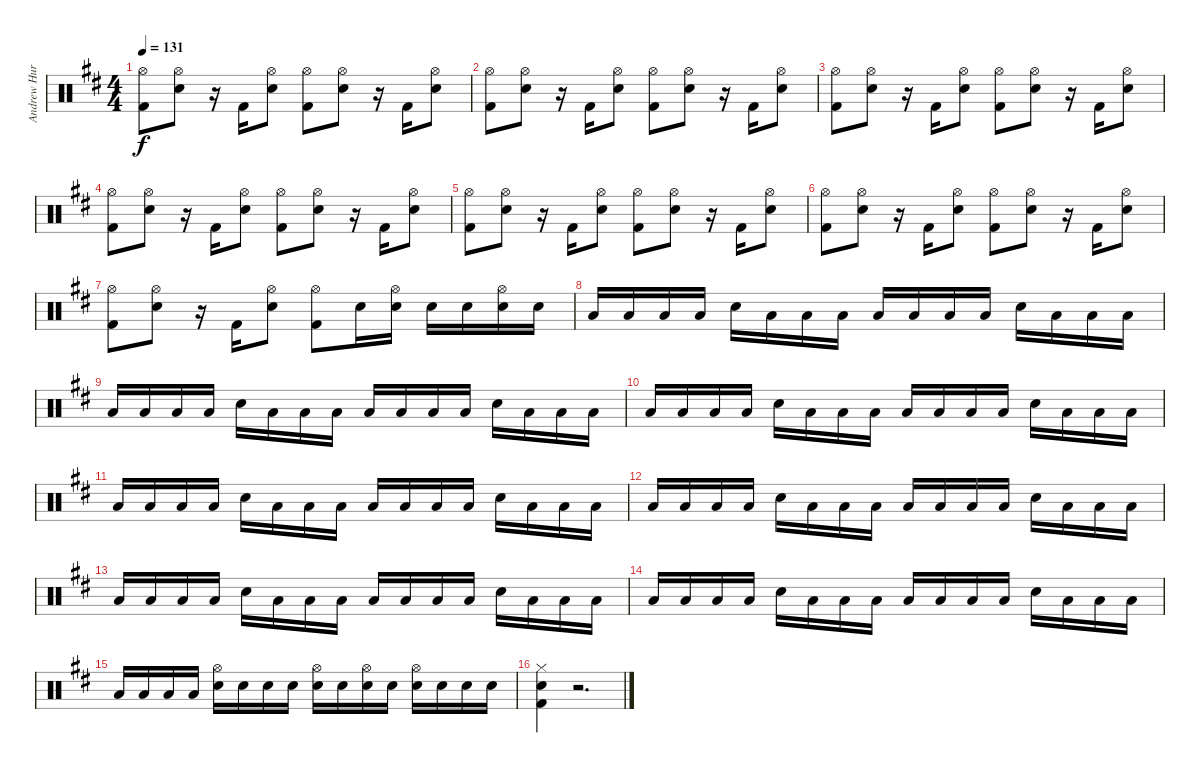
\track ("Andrew Hurley" "Andrew Hur") {instrument percussion}
\staff {score}
\articulation defaults
\ts (4 4)
\tempo 131
\clef neutral
\ks d
("Hi-Hat (open)" "Kick (hit) 2").8{dy f} ("Hi-Hat (open)" "Electric Snare (hit)").8 r.16 "Kick (hit) 2".16 ("Hi-Hat (open)" "Electric Snare (hit)").8 ("Hi-Hat (open)" "Kick (hit) 2").8 ("Hi-Hat (open)" "Electric Snare (hit)").8 r.16 "Kick (hit) 2".16 ("Hi-Hat (open)" "Electric Snare (hit)").8 |
("Hi-Hat (open)" "Kick (hit) 2").8 ("Hi-Hat (open)" "Electric Snare (hit)").8 r.16 "Kick (hit) 2".16 ("Hi-Hat (open)" "Electric Snare (hit)").8 ("Hi-Hat (open)" "Kick (hit) 2").8 ("Hi-Hat (open)" "Electric Snare (hit)").8 r.16 "Kick (hit) 2".16 ("Hi-Hat (open)" "Electric Snare (hit)").8 |
("Hi-Hat (open)" "Kick (hit) 2").8 ("Hi-Hat (open)" "Electric Snare (hit)").8 r.16 "Kick (hit) 2".16 ("Hi-Hat (open)" "Electric Snare (hit)").8 ("Hi-Hat (open)" "Kick (hit) 2").8 ("Hi-Hat (open)" "Electric Snare (hit)").8 r.16 "Kick (hit) 2".16 ("Hi-Hat (open)" "Electric Snare (hit)").8 |
("Hi-Hat (open)" "Kick (hit) 2").8 ("Hi-Hat (open)" "Electric Snare (hit)").8 r.16 "Kick (hit) 2".16 ("Hi-Hat (open)" "Electric Snare (hit)").8 ("Hi-Hat (open)" "Kick (hit) 2").8 ("Hi-Hat (open)" "Electric Snare (hit)").8 r.16 "Kick (hit) 2".16 ("Hi-Hat (open)" "Electric Snare (hit)").8 |
("Hi-Hat (open)" "Kick (hit) 2").8 ("Hi-Hat (open)" "Electric Snare (hit)").8 r.16 "Kick (hit) 2".16 ("Hi-Hat (open)" "Electric Snare (hit)").8 ("Hi-Hat (open)" "Kick (hit) 2").8 ("Hi-Hat (open)" "Electric Snare (hit)").8 r.16 "Kick (hit) 2".16 ("Hi-Hat (open)" "Electric Snare (hit)").8 |
("Hi-Hat (open)" "Kick (hit) 2").8 ("Hi-Hat (open)" "Electric Snare (hit)").8 r.16 "Kick (hit) 2".16 ("Hi-Hat (open)" "Electric Snare (hit)").8 ("Hi-Hat (open)" "Kick (hit) 2").8 ("Hi-Hat (open)" "Electric Snare (hit)").8 r.16 "Kick (hit) 2".16 ("Hi-Hat (open)" "Electric Snare (hit)").8 |
("Hi-Hat (open)" "Kick (hit) 2").8 ("Hi-Hat (open)" "Electric Snare (hit)").8 r.16 "Kick (hit) 2".16 ("Hi-Hat (open)" "Electric Snare (hit)").8 ("Hi-Hat (open)" "Kick (hit) 2").8 "Electric Snare (hit)".16 ("Hi-Hat (open)" "Electric Snare (hit)").16 "Electric Snare (hit)".16 "Electric Snare (hit)".16 ("Hi-Hat (open)" "Electric Snare (hit)").16 "Electric Snare (hit)".16 |
"Low Floor Tom (hit)".16 "Low Floor Tom (hit)".16 "Low Floor Tom (hit)".16 "Low Floor Tom (hit)".16 "Electric Snare (hit)".16 "Low Floor Tom (hit)".16 "Low Floor Tom (hit)".16 "Low Floor Tom (hit)".16 "Low Floor Tom (hit)".16 "Low Floor Tom (hit)".16 "Low Floor Tom (hit)".16 "Low Floor Tom (hit)".16 "Electric Snare (hit)".16 "Low Floor Tom (hit)".16 "Low Floor Tom (hit)".16 "Low Floor Tom (hit)".16 |
"Low Floor Tom (hit)".16 "Low Floor Tom (hit)".16 "Low Floor Tom (hit)".16 "Low Floor Tom (hit)".16 "Electric Snare (hit)".16 "Low Floor Tom (hit)".16 "Low Floor Tom (hit)".16 "Low Floor Tom (hit)".16 "Low Floor Tom (hit)".16 "Low Floor Tom (hit)".16 "Low Floor Tom (hit)".16 "Low Floor Tom (hit)".16 "Electric Snare (hit)".16 "Low Floor Tom (hit)".16 "Low Floor Tom (hit)".16 "Low Floor Tom (hit)".16 |
"Low Floor Tom (hit)".16 "Low Floor Tom (hit)".16 "Low Floor Tom (hit)".16 "Low Floor Tom (hit)".16 "Electric Snare (hit)".16 "Low Floor Tom (hit)".16 "Low Floor Tom (hit)".16 "Low Floor Tom (hit)".16 "Low Floor Tom (hit)".16 "Low Floor Tom (hit)".16 "Low Floor Tom (hit)".16 "Low Floor Tom (hit)".16 "Electric Snare (hit)".16 "Low Floor Tom (hit)".16 "Low Floor Tom (hit)".16 "Low Floor Tom (hit)".16 |
"Low Floor Tom (hit)".16 "Low Floor Tom (hit)".16 "Low Floor Tom (hit)".16 "Low Floor Tom (hit)".16 "Electric Snare (hit)".16 "Low Floor Tom (hit)".16 "Low Floor Tom (hit)".16 "Low Floor Tom (hit)".16 "Low Floor Tom (hit)".16 "Low Floor Tom (hit)".16 "Low Floor Tom (hit)".16 "Low Floor Tom (hit)".16 "Electric Snare (hit)".16 "Low Floor Tom (hit)".16 "Low Floor Tom (hit)".16 "Low Floor Tom (hit)".16 |
"Low Floor Tom (hit)".16 "Low Floor Tom (hit)".16 "Low Floor Tom (hit)".16 "Low Floor Tom (hit)".16 "Electric Snare (hit)".16 "Low Floor Tom (hit)".16 "Low Floor Tom (hit)".16 "Low Floor Tom (hit)".16 "Low Floor Tom (hit)".16 "Low Floor Tom (hit)".16 "Low Floor Tom (hit)".16 "Low Floor Tom (hit)".16 "Electric Snare (hit)".16 "Low Floor Tom (hit)".16 "Low Floor Tom (hit)".16 "Low Floor Tom (hit)".16 |
"Low Floor Tom (hit)".16 "Low Floor Tom (hit)".16 "Low Floor Tom (hit)".16 "Low Floor Tom (hit)".16 "Electric Snare (hit)".16 "Low Floor Tom (hit)".16 "Low Floor Tom (hit)".16 "Low Floor Tom (hit)".16 "Low Floor Tom (hit)".16 "Low Floor Tom (hit)".16 "Low Floor Tom (hit)".16 "Low Floor Tom (hit)".16 "Electric Snare (hit)".16 "Low Floor Tom (hit)".16 "Low Floor Tom (hit)".16 "Low Floor Tom (hit)".16 |
"Low Floor Tom (hit)".16 "Low Floor Tom (hit)".16 "Low Floor Tom (hit)".16 "Low Floor Tom (hit)".16 "Electric Snare (hit)".16 "Low Floor Tom (hit)".16 "Low Floor Tom (hit)".16 "Low Floor Tom (hit)".16 "Low Floor Tom (hit)".16 "Low Floor Tom (hit)".16 "Low Floor Tom (hit)".16 "Low Floor Tom (hit)".16 "Electric Snare (hit)".16 "Low Floor Tom (hit)".16 "Low Floor Tom (hit)".16 "Low Floor Tom (hit)".16 |
"Low Floor Tom (hit)".16 "Low Floor Tom (hit)".16 "Low Floor Tom (hit)".16 "Low Floor Tom (hit)".16 ("Hi-Hat (open)" "Electric Snare (hit)").16 "Electric Snare (hit)".16 "Electric Snare (hit)".16 "Electric Snare (hit)".16 ("Hi-Hat (open)" "Electric Snare (hit)").16 "Electric Snare (hit)".16 ("Hi-Hat (open)" "Electric Snare (hit)").16 "Electric Snare (hit)".16 ("Hi-Hat (open)" "Electric Snare (hit)").16 "Electric Snare (hit)".16 "Electric Snare (hit)".16 "Electric Snare (hit)".16 |
("Hi-Hat (closed)" "Electric Snare (hit)" "Kick (hit) 2").4 r.2{d}
